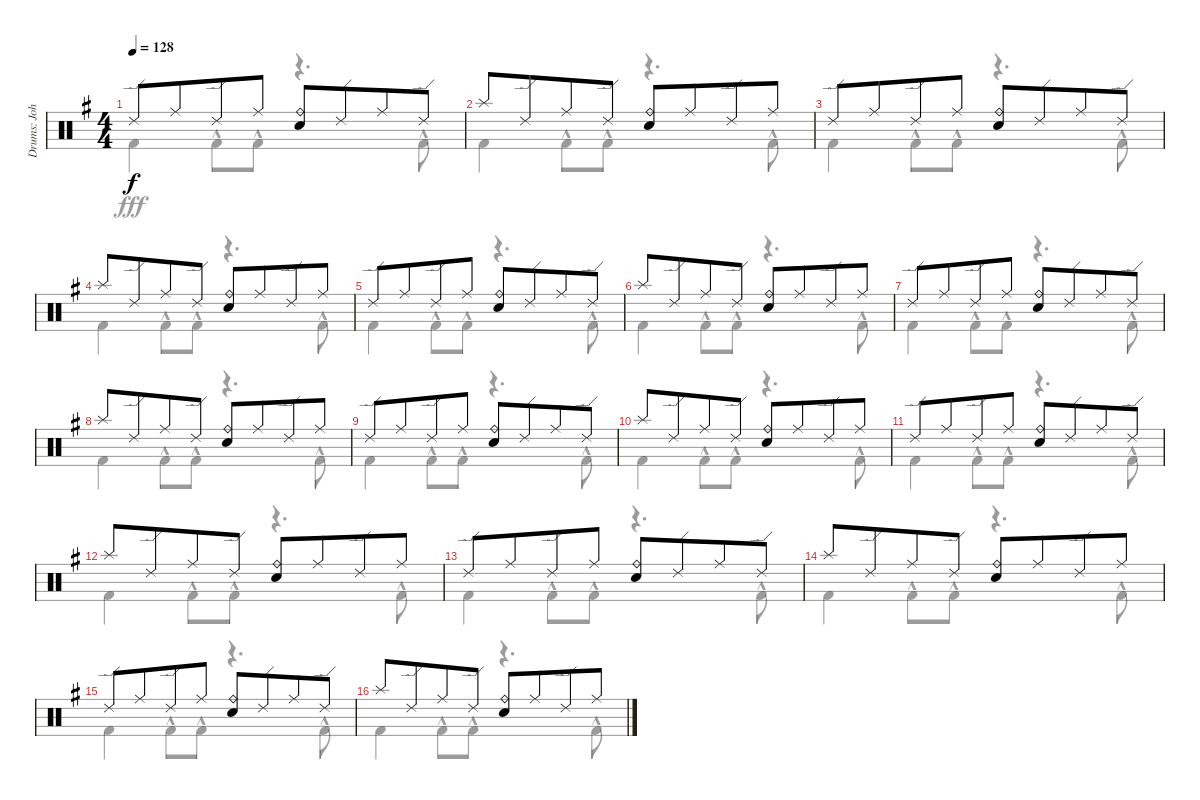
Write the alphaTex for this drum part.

\track ("Drums: John" "Drums: Joh") {instrument percussion}
\staff {score}
\articulation defaults
\voice
\ts (4 4)
\tempo 128
\clef neutral
\ks g "Ride (edge) 2".8{dy f} "Ride (middle)".8{beam merge} "Ride (edge) 2".8 "Ride (middle)".8
("Ride (bell)" "Electric Snare (hit)").8 "Ride (edge) 2".8{beam merge} "Ride (middle)".8 "Ride (edge) 2".8 |
"Splash (hit)".8 "Ride (edge) 2".8{beam merge} "Ride (middle)".8 "Ride (edge) 2".8 ("Ride (bell)" "Electric Snare (hit)").8 "Ride (middle)".8{beam merge} "Ride (edge) 2".8 "Ride (middle)".8 |
"Ride (edge) 2".8 "Ride (middle)".8{beam merge} "Ride (edge) 2".8 "Ride (middle)".8 ("Ride (bell)" "Electric Snare (hit)").8 "Ride (edge) 2".8{beam merge} "Ride (middle)".8 "Ride (edge) 2".8 |
"Splash (hit)".8 "Ride (edge) 2".8{beam merge} "Ride (middle)".8 "Ride (edge) 2".8 ("Ride (bell)" "Electric Snare (hit)").8 "Ride (middle)".8{beam merge} "Ride (edge) 2".8 "Ride (middle)".8 |
"Ride (edge) 2".8 "Ride (middle)".8{beam merge} "Ride (edge) 2".8 "Ride (middle)".8 ("Ride (bell)" "Electric Snare (hit)").8 "Ride (edge) 2".8{beam merge} "Ride (middle)".8 "Ride (edge) 2".8 |
"Splash (hit)".8 "Ride (edge) 2".8{beam merge} "Ride (middle)".8 "Ride (edge) 2".8 ("Ride (bell)" "Electric Snare (hit)").8 "Ride (middle)".8{beam merge} "Ride (edge) 2".8 "Ride (middle)".8 |
"Ride (edge) 2".8 "Ride (middle)".8{beam merge} "Ride (edge) 2".8 "Ride (middle)".8 ("Ride (bell)" "Electric Snare (hit)").8 "Ride (edge) 2".8{beam merge} "Ride (middle)".8 "Ride (edge) 2".8 |
"Splash (hit)".8 "Ride (edge) 2".8{beam merge} "Ride (middle)".8 "Ride (edge) 2".8 ("Ride (bell)" "Electric Snare (hit)").8 "Ride (middle)".8{beam merge} "Ride (edge) 2".8 "Ride (middle)".8 |
"Ride (edge) 2".8 "Ride (middle)".8{beam merge} "Ride (edge) 2".8 "Ride (middle)".8 ("Ride (bell)" "Electric Snare (hit)").8 "Ride (edge) 2".8{beam merge} "Ride (middle)".8 "Ride (edge) 2".8 |
"Splash (hit)".8 "Ride (edge) 2".8{beam merge} "Ride (middle)".8 "Ride (edge) 2".8 ("Ride (bell)" "Electric Snare (hit)").8 "Ride (middle)".8{beam merge} "Ride (edge) 2".8 "Ride (middle)".8 |
"Ride (edge) 2".8 "Ride (middle)".8{beam merge} "Ride (edge) 2".8 "Ride (middle)".8 ("Ride (bell)" "Electric Snare (hit)").8 "Ride (edge) 2".8{beam merge} "Ride (middle)".8 "Ride (edge) 2".8 |
"Splash (hit)".8 "Ride (edge) 2".8{beam merge} "Ride (middle)".8 "Ride (edge) 2".8 ("Ride (bell)" "Electric Snare (hit)").8 "Ride (middle)".8{beam merge} "Ride (edge) 2".8 "Ride (middle)".8 |
"Ride (edge) 2".8 "Ride (middle)".8{beam merge} "Ride (edge) 2".8 "Ride (middle)".8 ("Ride (bell)" "Electric Snare (hit)").8 "Ride (edge) 2".8{beam merge} "Ride (middle)".8 "Ride (edge) 2".8 |
"Splash (hit)".8 "Ride (edge) 2".8{beam merge} "Ride (middle)".8 "Ride (edge) 2".8 ("Ride (bell)" "Electric Snare (hit)").8 "Ride (middle)".8{beam merge} "Ride (edge) 2".8 "Ride (middle)".8 |
"Ride (edge) 2".8 "Ride (middle)".8{beam merge} "Ride (edge) 2".8 "Ride (middle)".8 ("Ride (bell)" "Electric Snare (hit)").8 "Ride (edge) 2".8{beam merge} "Ride (middle)".8 "Ride (edge) 2".8 |
"Splash (hit)".8 "Ride (edge) 2".8{beam merge} "Ride (middle)".8 "Ride (edge) 2".8 ("Ride (bell)" "Electric Snare (hit)").8 "Ride (middle)".8{beam merge} "Ride (edge) 2".8 "Ride (middle)".8
\voice
\clef neutral
\ottava regular
\simile none
\ks g "Kick (hit) 2".4{dy fff} "Kick (hit) 2"{hac}.8 "Kick (hit) 2"{hac}.8
r.4{d} "Kick (hit) 2"{hac}.8 |
"Kick (hit) 2".4 "Kick (hit) 2"{hac}.8 "Kick (hit) 2"{hac}.8 r.4{d} "Kick (hit) 2"{hac}.8 |
"Kick (hit) 2".4 "Kick (hit) 2"{hac}.8 "Kick (hit) 2"{hac}.8 r.4{d} "Kick (hit) 2"{hac}.8 |
"Kick (hit) 2".4 "Kick (hit) 2"{hac}.8 "Kick (hit) 2"{hac}.8 r.4{d} "Kick (hit) 2"{hac}.8 |
"Kick (hit) 2".4 "Kick (hit) 2"{hac}.8 "Kick (hit) 2"{hac}.8 r.4{d} "Kick (hit) 2"{hac}.8 |
"Kick (hit) 2".4 "Kick (hit) 2"{hac}.8 "Kick (hit) 2"{hac}.8 r.4{d} "Kick (hit) 2"{hac}.8 |
"Kick (hit) 2".4 "Kick (hit) 2"{hac}.8 "Kick (hit) 2"{hac}.8 r.4{d} "Kick (hit) 2"{hac}.8 |
"Kick (hit) 2".4 "Kick (hit) 2"{hac}.8 "Kick (hit) 2"{hac}.8 r.4{d} "Kick (hit) 2"{hac}.8 |
"Kick (hit) 2".4 "Kick (hit) 2"{hac}.8 "Kick (hit) 2"{hac}.8 r.4{d} "Kick (hit) 2"{hac}.8 |
"Kick (hit) 2".4 "Kick (hit) 2"{hac}.8 "Kick (hit) 2"{hac}.8 r.4{d} "Kick (hit) 2"{hac}.8 |
"Kick (hit) 2".4 "Kick (hit) 2"{hac}.8 "Kick (hit) 2"{hac}.8 r.4{d} "Kick (hit) 2"{hac}.8 |
"Kick (hit) 2".4 "Kick (hit) 2"{hac}.8 "Kick (hit) 2"{hac}.8 r.4{d} "Kick (hit) 2"{hac}.8 |
"Kick (hit) 2".4 "Kick (hit) 2"{hac}.8 "Kick (hit) 2"{hac}.8 r.4{d} "Kick (hit) 2"{hac}.8 |
"Kick (hit) 2".4 "Kick (hit) 2"{hac}.8 "Kick (hit) 2"{hac}.8 r.4{d} "Kick (hit) 2"{hac}.8 |
"Kick (hit) 2".4 "Kick (hit) 2"{hac}.8 "Kick (hit) 2"{hac}.8 r.4{d} "Kick (hit) 2"{hac}.8 |
"Kick (hit) 2".4 "Kick (hit) 2"{hac}.8 "Kick (hit) 2"{hac}.8 r.4{d} "Kick (hit) 2"{hac}.8
